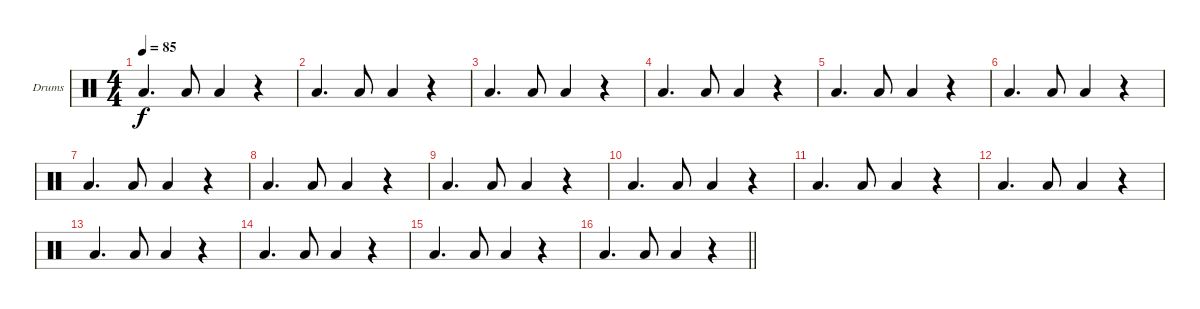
\bracketExtendMode groupsimilarinstruments
\firstSystemTrackNameOrientation horizontal
\otherSystemsTrackNameOrientation horizontal
\track ("Drumkit" "Drums") {instrument percussion}
\staff {score}
\articulation defaults
\ts (4 4)
\tempo 85
\clef neutral
\ks c "Low Tom (hit)".4{d dy f} "Low Tom (hit)".8 "Low Tom (hit)".4
r.4 |
"Low Tom (hit)".4{d} "Low Tom (hit)".8 "Low Tom (hit)".4 r.4 |
"Low Tom (hit)".4{d} "Low Tom (hit)".8 "Low Tom (hit)".4 r.4 |
"Low Tom (hit)".4{d} "Low Tom (hit)".8 "Low Tom (hit)".4 r.4 |
"Low Tom (hit)".4{d} "Low Tom (hit)".8 "Low Tom (hit)".4 r.4 |
"Low Tom (hit)".4{d} "Low Tom (hit)".8 "Low Tom (hit)".4 r.4 |
"Low Tom (hit)".4{d} "Low Tom (hit)".8 "Low Tom (hit)".4 r.4 |
"Low Tom (hit)".4{d} "Low Tom (hit)".8 "Low Tom (hit)".4 r.4 |
"Low Tom (hit)".4{d} "Low Tom (hit)".8 "Low Tom (hit)".4 r.4 |
"Low Tom (hit)".4{d} "Low Tom (hit)".8 "Low Tom (hit)".4 r.4 |
"Low Tom (hit)".4{d} "Low Tom (hit)".8 "Low Tom (hit)".4 r.4 |
"Low Tom (hit)".4{d} "Low Tom (hit)".8 "Low Tom (hit)".4 r.4 |
"Low Tom (hit)".4{d} "Low Tom (hit)".8 "Low Tom (hit)".4 r.4 |
"Low Tom (hit)".4{d} "Low Tom (hit)".8 "Low Tom (hit)".4 r.4 |
"Low Tom (hit)".4{d} "Low Tom (hit)".8 "Low Tom (hit)".4 r.4 |
\barLineRight lightlight "Low Tom (hit)".4{d} "Low Tom (hit)".8 "Low Tom (hit)".4
r.4
